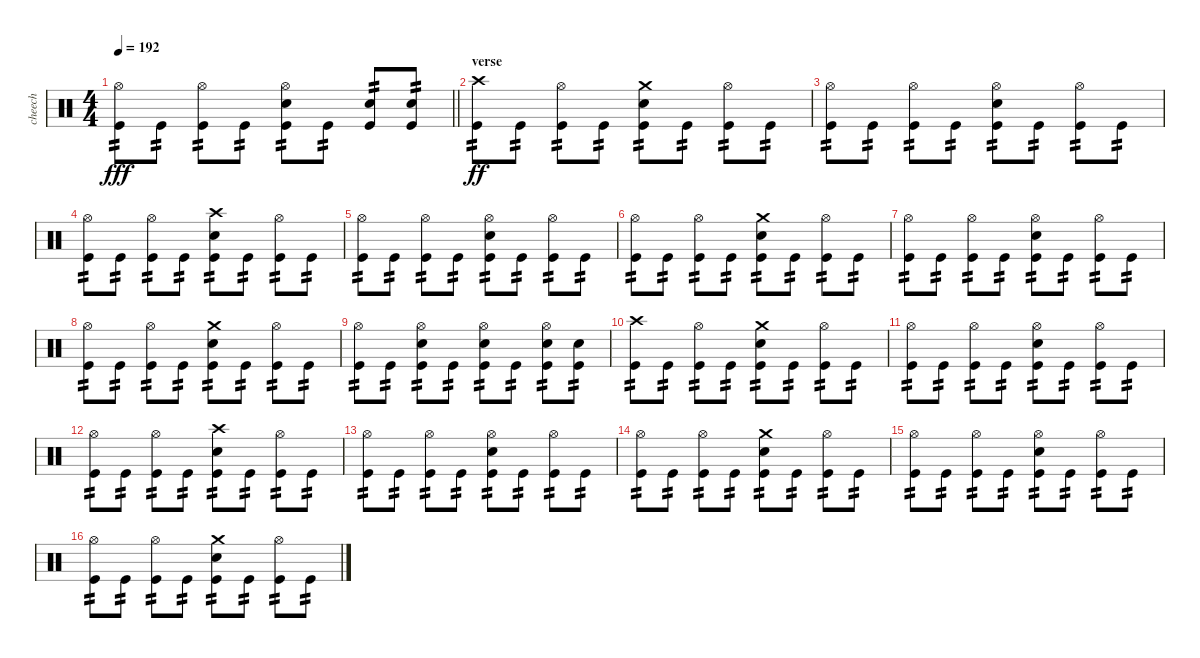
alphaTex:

\track ("cheech" "cheech") {instrument percussion}
\staff {score}
\articulation defaults
\ts (4 4)
\tempo 192
\clef neutral
\barLineRight lightlight
\ks c
("Hi-Hat (open)" "Kick (hit)").8{tp 2 dy fff} "Kick (hit)".8{tp 2} ("Hi-Hat (open)" "Kick (hit)").8{tp 2} "Kick (hit)".8{tp 2} ("Hi-Hat (open)" "Electric Snare (hit)" "Kick (hit)").8{tp 2} "Kick (hit)".8{tp 2} ("Electric Snare (hit)" "Kick (hit)").8{tp 2} ("Electric Snare (hit)" "Kick (hit)").8{tp 2} |
\section ("" "verse")
("Crash high (hit)" "Kick (hit)").8{tp 2 dy ff} "Kick (hit)".8{tp 2} ("Hi-Hat (open)" "Kick (hit)").8{tp 2} "Kick (hit)".8{tp 2} ("Crash medium (hit)" "Electric Snare (hit)" "Kick (hit)").8{tp 2} "Kick (hit)".8{tp 2} ("Hi-Hat (open)" "Kick (hit)").8{tp 2} "Kick (hit)".8{tp 2} |
("Hi-Hat (open)" "Kick (hit)").8{tp 2} "Kick (hit)".8{tp 2} ("Hi-Hat (open)" "Kick (hit)").8{tp 2} "Kick (hit)".8{tp 2} ("Hi-Hat (open)" "Electric Snare (hit)" "Kick (hit)").8{tp 2} "Kick (hit)".8{tp 2} ("Hi-Hat (open)" "Kick (hit)").8{tp 2} "Kick (hit)".8{tp 2} |
("Hi-Hat (open)" "Kick (hit)").8{tp 2} "Kick (hit)".8{tp 2} ("Hi-Hat (open)" "Kick (hit)").8{tp 2} "Kick (hit)".8{tp 2} ("Crash high (hit)" "Electric Snare (hit)" "Kick (hit)").8{tp 2} "Kick (hit)".8{tp 2} ("Hi-Hat (open)" "Kick (hit)").8{tp 2} "Kick (hit)".8{tp 2} |
("Hi-Hat (open)" "Kick (hit)").8{tp 2} "Kick (hit)".8{tp 2} ("Hi-Hat (open)" "Kick (hit)").8{tp 2} "Kick (hit)".8{tp 2} ("Hi-Hat (open)" "Electric Snare (hit)" "Kick (hit)").8{tp 2} "Kick (hit)".8{tp 2} ("Hi-Hat (open)" "Kick (hit)").8{tp 2} "Kick (hit)".8{tp 2} |
("Hi-Hat (open)" "Kick (hit)").8{tp 2} "Kick (hit)".8{tp 2} ("Hi-Hat (open)" "Kick (hit)").8{tp 2} "Kick (hit)".8{tp 2} ("Crash medium (hit)" "Electric Snare (hit)" "Kick (hit)").8{tp 2} "Kick (hit)".8{tp 2} ("Hi-Hat (open)" "Kick (hit)").8{tp 2} "Kick (hit)".8{tp 2} |
("Hi-Hat (open)" "Kick (hit)").8{tp 2} "Kick (hit)".8{tp 2} ("Hi-Hat (open)" "Kick (hit)").8{tp 2} "Kick (hit)".8{tp 2} ("Hi-Hat (open)" "Electric Snare (hit)" "Kick (hit)").8{tp 2} "Kick (hit)".8{tp 2} ("Hi-Hat (open)" "Kick (hit)").8{tp 2} "Kick (hit)".8{tp 2} |
("Hi-Hat (open)" "Kick (hit)").8{tp 2} "Kick (hit)".8{tp 2} ("Hi-Hat (open)" "Kick (hit)").8{tp 2} "Kick (hit)".8{tp 2} ("Crash medium (hit)" "Electric Snare (hit)" "Kick (hit)").8{tp 2} "Kick (hit)".8{tp 2} ("Hi-Hat (open)" "Kick (hit)").8{tp 2} "Kick (hit)".8{tp 2} |
("Hi-Hat (open)" "Kick (hit)").8{tp 2} "Kick (hit)".8{tp 2} ("Hi-Hat (open)" "Electric Snare (hit)" "Kick (hit)").8{tp 2} "Kick (hit)".8{tp 2} ("Hi-Hat (open)" "Electric Snare (hit)" "Kick (hit)").8{tp 2} "Kick (hit)".8{tp 2} ("Hi-Hat (open)" "Electric Snare (hit)" "Kick (hit)").8{tp 2} ("Electric Snare (hit)" "Kick (hit)").8{tp 2} |
("Crash high (hit)" "Kick (hit)").8{tp 2} "Kick (hit)".8{tp 2} ("Hi-Hat (open)" "Kick (hit)").8{tp 2} "Kick (hit)".8{tp 2} ("Crash medium (hit)" "Electric Snare (hit)" "Kick (hit)").8{tp 2} "Kick (hit)".8{tp 2} ("Hi-Hat (open)" "Kick (hit)").8{tp 2} "Kick (hit)".8{tp 2} |
("Hi-Hat (open)" "Kick (hit)").8{tp 2} "Kick (hit)".8{tp 2} ("Hi-Hat (open)" "Kick (hit)").8{tp 2} "Kick (hit)".8{tp 2} ("Hi-Hat (open)" "Electric Snare (hit)" "Kick (hit)").8{tp 2} "Kick (hit)".8{tp 2} ("Hi-Hat (open)" "Kick (hit)").8{tp 2} "Kick (hit)".8{tp 2} |
("Hi-Hat (open)" "Kick (hit)").8{tp 2} "Kick (hit)".8{tp 2} ("Hi-Hat (open)" "Kick (hit)").8{tp 2} "Kick (hit)".8{tp 2} ("Crash high (hit)" "Electric Snare (hit)" "Kick (hit)").8{tp 2} "Kick (hit)".8{tp 2} ("Hi-Hat (open)" "Kick (hit)").8{tp 2} "Kick (hit)".8{tp 2} |
("Hi-Hat (open)" "Kick (hit)").8{tp 2} "Kick (hit)".8{tp 2} ("Hi-Hat (open)" "Kick (hit)").8{tp 2} "Kick (hit)".8{tp 2} ("Hi-Hat (open)" "Electric Snare (hit)" "Kick (hit)").8{tp 2} "Kick (hit)".8{tp 2} ("Hi-Hat (open)" "Kick (hit)").8{tp 2} "Kick (hit)".8{tp 2} |
("Hi-Hat (open)" "Kick (hit)").8{tp 2} "Kick (hit)".8{tp 2} ("Hi-Hat (open)" "Kick (hit)").8{tp 2} "Kick (hit)".8{tp 2} ("Crash medium (hit)" "Electric Snare (hit)" "Kick (hit)").8{tp 2} "Kick (hit)".8{tp 2} ("Hi-Hat (open)" "Kick (hit)").8{tp 2} "Kick (hit)".8{tp 2} |
("Hi-Hat (open)" "Kick (hit)").8{tp 2} "Kick (hit)".8{tp 2} ("Hi-Hat (open)" "Kick (hit)").8{tp 2} "Kick (hit)".8{tp 2} ("Hi-Hat (open)" "Electric Snare (hit)" "Kick (hit)").8{tp 2} "Kick (hit)".8{tp 2} ("Hi-Hat (open)" "Kick (hit)").8{tp 2} "Kick (hit)".8{tp 2} |
("Hi-Hat (open)" "Kick (hit)").8{tp 2} "Kick (hit)".8{tp 2} ("Hi-Hat (open)" "Kick (hit)").8{tp 2} "Kick (hit)".8{tp 2} ("Crash medium (hit)" "Electric Snare (hit)" "Kick (hit)").8{tp 2} "Kick (hit)".8{tp 2} ("Hi-Hat (open)" "Kick (hit)").8{tp 2} "Kick (hit)".8{tp 2}
